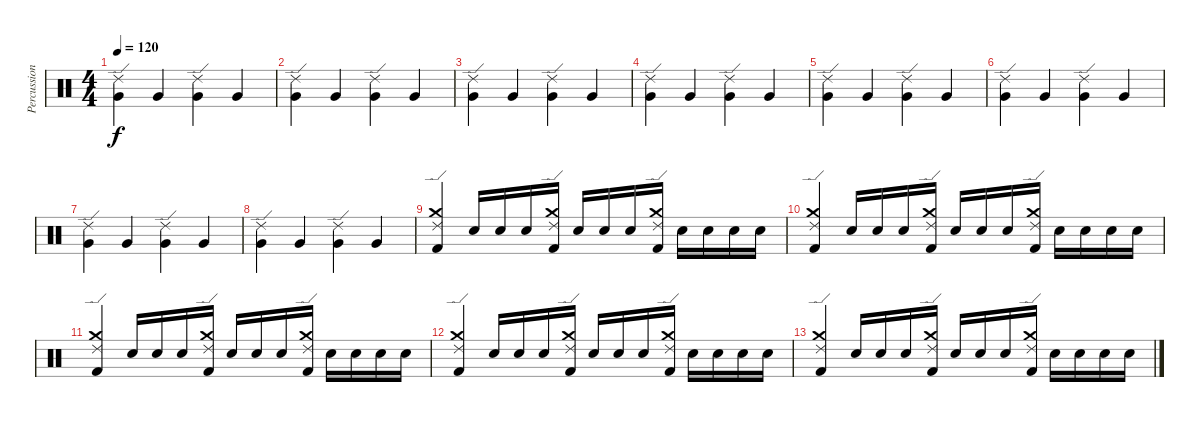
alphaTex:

\track ("Percussion" "Percussion") {instrument percussion}
\staff {score}
\articulation defaults
\ts (4 4)
\tempo 120
\clef neutral
\ks c
("Ride (edge) 2" "Very Low Tom (hit)").4{dy f} "Very Low Tom (hit)".4 ("Ride (edge) 2" "Very Low Tom (hit)").4 "Very Low Tom (hit)".4 |
("Ride (edge) 2" "Very Low Tom (hit)").4 "Very Low Tom (hit)".4 ("Ride (edge) 2" "Very Low Tom (hit)").4 "Very Low Tom (hit)".4 |
("Ride (edge) 2" "Very Low Tom (hit)").4 "Very Low Tom (hit)".4 ("Ride (edge) 2" "Very Low Tom (hit)").4 "Very Low Tom (hit)".4 |
("Ride (edge) 2" "Very Low Tom (hit)").4 "Very Low Tom (hit)".4 ("Ride (edge) 2" "Very Low Tom (hit)").4 "Very Low Tom (hit)".4 |
("Ride (edge) 2" "Very Low Tom (hit)").4 "Very Low Tom (hit)".4 ("Ride (edge) 2" "Very Low Tom (hit)").4 "Very Low Tom (hit)".4 |
("Ride (edge) 2" "Very Low Tom (hit)").4 "Very Low Tom (hit)".4 ("Ride (edge) 2" "Very Low Tom (hit)").4 "Very Low Tom (hit)".4 |
("Ride (edge) 2" "Very Low Tom (hit)").4 "Very Low Tom (hit)".4 ("Ride (edge) 2" "Very Low Tom (hit)").4 "Very Low Tom (hit)".4 |
("Ride (edge) 2" "Very Low Tom (hit)").4 "Very Low Tom (hit)".4 ("Ride (edge) 2" "Very Low Tom (hit)").4 "Very Low Tom (hit)".4 |
("Crash medium (hit)" "Ride (edge) 2" "Kick (hit) 2").4 "Snare (hit) 2".16 "Snare (hit) 2".16 "Snare (hit) 2".16 ("Crash medium (hit)" "Ride (edge) 2" "Kick (hit) 2").16 "Snare (hit) 2".16 "Snare (hit) 2".16 "Snare (hit) 2".16 ("Ride (edge) 2" "Crash medium (hit)" "Kick (hit) 2").16 "Snare (hit) 2".16 "Snare (hit) 2".16 "Snare (hit) 2".16 "Snare (hit) 2".16 |
("Crash medium (hit)" "Ride (edge) 2" "Kick (hit) 2").4 "Snare (hit) 2".16 "Snare (hit) 2".16 "Snare (hit) 2".16 ("Crash medium (hit)" "Ride (edge) 2" "Kick (hit) 2").16 "Snare (hit) 2".16 "Snare (hit) 2".16 "Snare (hit) 2".16 ("Ride (edge) 2" "Crash medium (hit)" "Kick (hit) 2").16 "Snare (hit) 2".16 "Snare (hit) 2".16 "Snare (hit) 2".16 "Snare (hit) 2".16 |
("Crash medium (hit)" "Ride (edge) 2" "Kick (hit) 2").4 "Snare (hit) 2".16 "Snare (hit) 2".16 "Snare (hit) 2".16 ("Crash medium (hit)" "Ride (edge) 2" "Kick (hit) 2").16 "Snare (hit) 2".16 "Snare (hit) 2".16 "Snare (hit) 2".16 ("Ride (edge) 2" "Crash medium (hit)" "Kick (hit) 2").16 "Snare (hit) 2".16 "Snare (hit) 2".16 "Snare (hit) 2".16 "Snare (hit) 2".16 |
("Crash medium (hit)" "Ride (edge) 2" "Kick (hit) 2").4 "Snare (hit) 2".16 "Snare (hit) 2".16 "Snare (hit) 2".16 ("Crash medium (hit)" "Ride (edge) 2" "Kick (hit) 2").16 "Snare (hit) 2".16 "Snare (hit) 2".16 "Snare (hit) 2".16 ("Ride (edge) 2" "Crash medium (hit)" "Kick (hit) 2").16 "Snare (hit) 2".16 "Snare (hit) 2".16 "Snare (hit) 2".16 "Snare (hit) 2".16 |
("Crash medium (hit)" "Ride (edge) 2" "Kick (hit) 2").4 "Snare (hit) 2".16 "Snare (hit) 2".16 "Snare (hit) 2".16 ("Crash medium (hit)" "Ride (edge) 2" "Kick (hit) 2").16 "Snare (hit) 2".16 "Snare (hit) 2".16 "Snare (hit) 2".16 ("Ride (edge) 2" "Crash medium (hit)" "Kick (hit) 2").16 "Snare (hit) 2".16 "Snare (hit) 2".16 "Snare (hit) 2".16 "Snare (hit) 2".16
